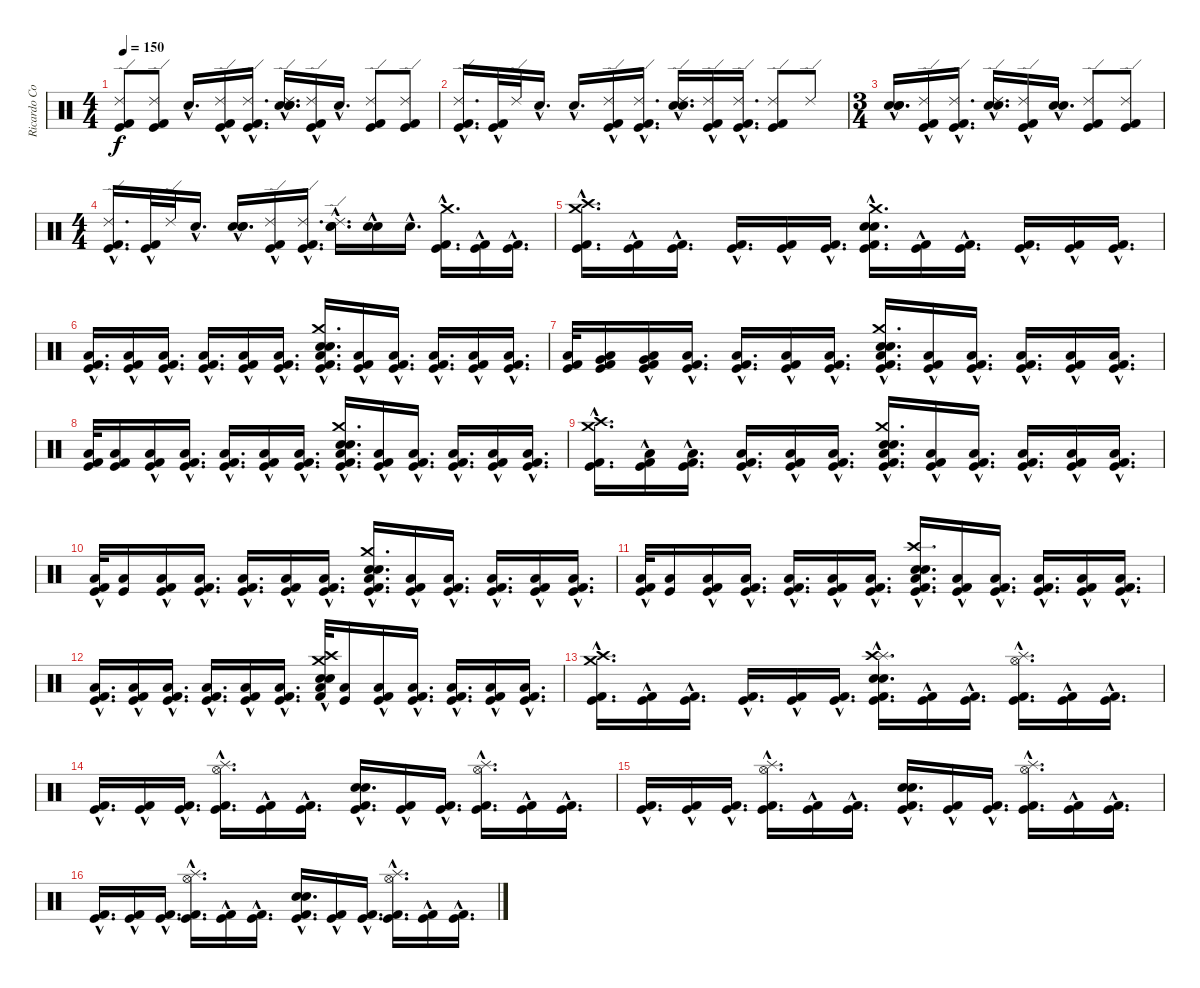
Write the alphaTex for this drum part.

\track ("Ricardo Confessori" "Ricardo Co") {instrument percussion}
\staff {score}
\articulation defaults
\ts (4 4)
\tempo 150
\clef neutral
\ks c
("Ride (edge) 2" "Kick (hit) 2" "Kick (hit)").8{dy f} ("Ride (edge) 2" "Kick (hit) 2" "Kick (hit)").8 "Snare (hit)"{hac}.16{d} ("Ride (edge) 2"{hac} "Kick (hit) 2"{hac} "Kick (hit)"{hac}).16 ("Ride (edge) 2"{hac} "Kick (hit) 2"{hac} "Kick (hit)"{hac}).16{d} ("Electric Snare (hit)"{hac} "Snare (hit) 2"{hac} "Ride (edge) 2"{hac} "Snare (hit)"{hac}).16{d} ("Ride (edge) 2"{hac} "Kick (hit) 2"{hac} "Kick (hit)"{hac}).16 "Snare (hit)"{hac}.16{d} ("Ride (edge) 2" "Kick (hit) 2" "Kick (hit)").8 ("Ride (edge) 2" "Kick (hit) 2" "Kick (hit)").8 |
("Ride (edge) 2" "Kick (hit) 2"{hac} "Kick (hit)"{hac}).16{d} ("Kick (hit) 2"{hac} "Kick (hit)"{hac}).32 "Ride (edge) 2".32 "Snare (hit)"{hac}.16{d} "Snare (hit)"{hac}.16{d} ("Ride (edge) 2"{hac} "Kick (hit) 2"{hac} "Kick (hit)"{hac}).16 ("Ride (edge) 2"{hac} "Kick (hit) 2"{hac} "Kick (hit)"{hac}).16{d} ("Electric Snare (hit)"{hac} "Snare (hit) 2"{hac} "Ride (edge) 2"{hac}).16{d} ("Ride (edge) 2"{hac} "Kick (hit) 2"{hac} "Kick (hit)"{hac}).16 ("Ride (edge) 2"{hac} "Kick (hit) 2"{hac} "Kick (hit)"{hac}).16{d} ("Kick (hit) 2" "Ride (edge) 2" "Kick (hit)").8 "Ride (edge) 2".8 |
\ts (3 4)
("Electric Snare (hit)"{hac} "Snare (hit) 2"{hac} "Snare (hit)"{hac}).16{d} ("Kick (hit) 2"{hac} "Ride (edge) 2"{hac} "Kick (hit)"{hac}).16 ("Kick (hit) 2"{hac} "Ride (edge) 2"{hac} "Kick (hit)"{hac}).16{d} ("Electric Snare (hit)"{hac} "Snare (hit) 2"{hac} "Ride (edge) 2"{hac}).16{d} ("Ride (edge) 2"{hac} "Kick (hit) 2"{hac} "Kick (hit)"{hac}).16 ("Snare (hit)"{hac} "Snare (hit)"{hac}).16{d} ("Ride (edge) 2" "Kick (hit) 2" "Kick (hit)").8 ("Ride (edge) 2" "Kick (hit) 2" "Kick (hit)").8 |
\ts (4 4)
("Ride (edge) 2" "Kick (hit) 2"{hac} "Kick (hit)"{hac}).16{d} ("Kick (hit) 2"{hac} "Kick (hit)"{hac}).32 "Ride (edge) 2".32 "Snare (hit)"{hac}.16{d} ("Electric Snare (hit)"{hac} "Snare (hit) 2"{hac} "Snare (hit)"{hac}).16{d} ("Ride (edge) 2"{hac} "Kick (hit) 2"{hac} "Kick (hit)"{hac}).16 ("Ride (edge) 2"{hac} "Kick (hit) 2"{hac} "Kick (hit)"{hac}).16{d} ("Electric Snare (hit)"{hac} "Ride (edge) 2"{hac} "Snare (hit) 2"{hac}).16{d} ("Electric Snare (hit)"{hac} "Snare (hit) 2"{hac}).16 "Snare (hit)"{hac}.16{d} ("Crash medium (hit)"{hac} "Kick (hit) 2"{hac} "Kick (hit)"{hac}).16{d} ("Kick (hit) 2"{hac} "Kick (hit)"{hac}).16 ("Kick (hit) 2"{hac} "Kick (hit)"{hac}).16{d} |
("Crash high (hit)"{hac} "Crash medium (hit)"{hac} "Kick (hit) 2"{hac} "Kick (hit)"{hac}).16{d} ("Kick (hit) 2"{hac} "Kick (hit)"{hac}).16 ("Kick (hit) 2"{hac} "Kick (hit)"{hac}).16{d} ("Kick (hit) 2"{hac} "Kick (hit)"{hac}).16{d} ("Kick (hit) 2"{hac} "Kick (hit)"{hac}).16 ("Kick (hit) 2"{hac} "Kick (hit)"{hac}).16{d} ("Electric Snare (hit)"{hac} "Snare (hit) 2"{hac} "Crash medium (hit)"{hac} "Kick (hit) 2"{hac} "Kick (hit)"{hac}).16{d} ("Kick (hit) 2"{hac} "Kick (hit)"{hac}).16 ("Kick (hit) 2"{hac} "Kick (hit)"{hac}).16{d} ("Kick (hit) 2"{hac} "Kick (hit)"{hac}).16{d} ("Kick (hit) 2"{hac} "Kick (hit)"{hac}).16 ("Kick (hit) 2"{hac} "Kick (hit)"{hac}).16{d} |
("Low Floor Tom (hit)"{hac} "Kick (hit) 2"{hac} "Kick (hit)"{hac}).16{d} ("Low Floor Tom (hit)"{hac} "Kick (hit) 2"{hac} "Kick (hit)"{hac}).16 ("Low Floor Tom (hit)"{hac} "Kick (hit) 2"{hac} "Kick (hit)"{hac}).16{d} ("Low Floor Tom (hit)"{hac} "Kick (hit) 2"{hac} "Kick (hit)"{hac}).16{d} ("Low Floor Tom (hit)"{hac} "Kick (hit) 2"{hac} "Kick (hit)"{hac}).16 ("Low Floor Tom (hit)"{hac} "Kick (hit) 2"{hac} "Kick (hit)"{hac}).16{d} ("Low Floor Tom (hit)"{hac} "Crash medium (hit)"{hac} "Electric Snare (hit)"{hac} "Snare (hit) 2"{hac} "Kick (hit) 2"{hac} "Kick (hit)"{hac}).16{d} ("Low Floor Tom (hit)"{hac} "Kick (hit) 2"{hac} "Kick (hit)"{hac}).16 ("Low Floor Tom (hit)"{hac} "Kick (hit) 2"{hac} "Kick (hit)"{hac}).16{d} ("Low Floor Tom (hit)"{hac} "Kick (hit) 2"{hac} "Kick (hit)"{hac}).16{d} ("Low Floor Tom (hit)"{hac} "Kick (hit) 2"{hac} "Kick (hit)"{hac}).16 ("Low Floor Tom (hit)"{hac} "Kick (hit) 2"{hac} "Kick (hit)"{hac}).16{d} |
("Low Floor Tom (hit)" "Kick (hit) 2" "Kick (hit)").32 ("Very Low Tom (hit)" "Kick (hit) 2" "Kick (hit)" "Low Floor Tom (hit)").16 ("Very Low Tom (hit)"{hac} "Low Floor Tom (hit)"{hac} "Kick (hit) 2"{hac} "Kick (hit)"{hac}).16 ("Low Floor Tom (hit)"{hac} "Kick (hit) 2"{hac} "Kick (hit)"{hac}).16{d} ("Low Floor Tom (hit)"{hac} "Kick (hit) 2"{hac} "Kick (hit)"{hac}).16{d} ("Low Floor Tom (hit)"{hac} "Kick (hit) 2"{hac} "Kick (hit)"{hac}).16 ("Low Floor Tom (hit)"{hac} "Kick (hit) 2"{hac} "Kick (hit)"{hac}).16{d} ("Crash medium (hit)"{hac} "Electric Snare (hit)"{hac} "Snare (hit) 2"{hac} "Low Floor Tom (hit)"{hac} "Kick (hit) 2"{hac} "Kick (hit)"{hac}).16{d} ("Low Floor Tom (hit)"{hac} "Kick (hit) 2"{hac} "Kick (hit)"{hac}).16 ("Low Floor Tom (hit)"{hac} "Kick (hit) 2"{hac} "Kick (hit)"{hac}).16{d} ("Low Floor Tom (hit)"{hac} "Kick (hit) 2"{hac} "Kick (hit)"{hac}).16{d} ("Low Floor Tom (hit)"{hac} "Kick (hit) 2"{hac} "Kick (hit)"{hac}).16 ("Low Floor Tom (hit)"{hac} "Kick (hit) 2"{hac} "Kick (hit)"{hac}).16{d} |
("Low Floor Tom (hit)" "Kick (hit) 2" "Kick (hit)").32 ("Kick (hit) 2" "Kick (hit)" "Low Floor Tom (hit)").16 ("Low Floor Tom (hit)"{hac} "Kick (hit) 2"{hac} "Kick (hit)"{hac}).16 ("Low Floor Tom (hit)"{hac} "Kick (hit) 2"{hac} "Kick (hit)"{hac}).16{d} ("Low Floor Tom (hit)"{hac} "Kick (hit) 2"{hac} "Kick (hit)"{hac}).16{d} ("Low Floor Tom (hit)"{hac} "Kick (hit) 2"{hac} "Kick (hit)"{hac}).16 ("Low Floor Tom (hit)"{hac} "Kick (hit) 2"{hac} "Kick (hit)"{hac}).16{d} ("Crash medium (hit)"{hac} "Electric Snare (hit)"{hac} "Snare (hit) 2"{hac} "Low Floor Tom (hit)"{hac} "Kick (hit) 2"{hac} "Kick (hit)"{hac}).16{d} ("Low Floor Tom (hit)"{hac} "Kick (hit) 2"{hac} "Kick (hit)"{hac}).16 ("Low Floor Tom (hit)"{hac} "Kick (hit) 2"{hac} "Kick (hit)"{hac}).16{d} ("Low Floor Tom (hit)"{hac} "Kick (hit) 2"{hac} "Kick (hit)"{hac}).16{d} ("Low Floor Tom (hit)"{hac} "Kick (hit) 2"{hac} "Kick (hit)"{hac}).16 ("Low Floor Tom (hit)"{hac} "Kick (hit) 2"{hac} "Kick (hit)"{hac}).16{d} |
("Crash high (hit)"{hac} "Crash medium (hit)"{hac} "Kick (hit) 2"{hac} "Kick (hit)"{hac}).16{d} ("Low Floor Tom (hit)"{hac} "Kick (hit) 2"{hac} "Kick (hit)"{hac}).16 ("Low Floor Tom (hit)"{hac} "Kick (hit) 2"{hac} "Kick (hit)"{hac}).16{d} ("Low Floor Tom (hit)"{hac} "Kick (hit) 2"{hac} "Kick (hit)"{hac}).16{d} ("Low Floor Tom (hit)"{hac} "Kick (hit) 2"{hac} "Kick (hit)"{hac}).16 ("Low Floor Tom (hit)"{hac} "Kick (hit) 2"{hac} "Kick (hit)"{hac}).16{d} ("Crash medium (hit)"{hac} "Electric Snare (hit)"{hac} "Snare (hit) 2"{hac} "Low Floor Tom (hit)"{hac} "Kick (hit) 2"{hac} "Kick (hit)"{hac}).16{d} ("Low Floor Tom (hit)"{hac} "Kick (hit) 2"{hac} "Kick (hit)"{hac}).16 ("Low Floor Tom (hit)"{hac} "Kick (hit) 2"{hac} "Kick (hit)"{hac}).16{d} ("Low Floor Tom (hit)"{hac} "Kick (hit) 2"{hac} "Kick (hit)"{hac}).16{d} ("Low Floor Tom (hit)"{hac} "Kick (hit) 2"{hac} "Kick (hit)"{hac}).16 ("Low Floor Tom (hit)"{hac} "Kick (hit) 2"{hac} "Kick (hit)"{hac}).16{d} |
("Low Floor Tom (hit)" "Kick (hit) 2"{hac} "Kick (hit)").32 ("Kick (hit)" "Low Floor Tom (hit)").16 ("Low Floor Tom (hit)"{hac} "Kick (hit) 2"{hac} "Kick (hit)"{hac}).16 ("Low Floor Tom (hit)"{hac} "Kick (hit) 2"{hac} "Kick (hit)"{hac}).16{d} ("Low Floor Tom (hit)"{hac} "Kick (hit) 2"{hac} "Kick (hit)"{hac}).16{d} ("Low Floor Tom (hit)"{hac} "Kick (hit) 2"{hac} "Kick (hit)"{hac}).16 ("Low Floor Tom (hit)"{hac} "Kick (hit) 2"{hac} "Kick (hit)"{hac}).16{d} ("Crash medium (hit)"{hac} "Electric Snare (hit)"{hac} "Snare (hit) 2"{hac} "Low Floor Tom (hit)"{hac} "Kick (hit) 2"{hac} "Kick (hit)"{hac}).16{d} ("Low Floor Tom (hit)"{hac} "Kick (hit) 2"{hac} "Kick (hit)"{hac}).16 ("Low Floor Tom (hit)"{hac} "Kick (hit) 2"{hac} "Kick (hit)"{hac}).16{d} ("Low Floor Tom (hit)"{hac} "Kick (hit) 2"{hac} "Kick (hit)"{hac}).16{d} ("Low Floor Tom (hit)"{hac} "Kick (hit) 2"{hac} "Kick (hit)"{hac}).16 ("Low Floor Tom (hit)"{hac} "Kick (hit) 2"{hac} "Kick (hit)"{hac}).16{d} |
("Low Floor Tom (hit)" "Kick (hit) 2"{hac} "Kick (hit)").32 ("Kick (hit)" "Low Floor Tom (hit)").16 ("Low Floor Tom (hit)"{hac} "Kick (hit) 2"{hac} "Kick (hit)"{hac}).16 ("Low Floor Tom (hit)"{hac} "Kick (hit) 2"{hac} "Kick (hit)"{hac}).16{d} ("Low Floor Tom (hit)"{hac} "Kick (hit) 2"{hac} "Kick (hit)"{hac}).16{d} ("Low Floor Tom (hit)"{hac} "Kick (hit) 2"{hac} "Kick (hit)"{hac}).16 ("Low Floor Tom (hit)"{hac} "Kick (hit) 2"{hac} "Kick (hit)"{hac}).16{d} ("Crash high (hit)"{hac} "Electric Snare (hit)"{hac} "Snare (hit) 2"{hac} "Low Floor Tom (hit)"{hac} "Kick (hit) 2"{hac} "Kick (hit)"{hac}).16{d} ("Low Floor Tom (hit)"{hac} "Kick (hit) 2"{hac} "Kick (hit)"{hac}).16 ("Low Floor Tom (hit)"{hac} "Kick (hit) 2"{hac} "Kick (hit)"{hac}).16{d} ("Low Floor Tom (hit)"{hac} "Kick (hit) 2"{hac} "Kick (hit)"{hac}).16{d} ("Low Floor Tom (hit)"{hac} "Kick (hit) 2"{hac} "Kick (hit)"{hac}).16 ("Low Floor Tom (hit)"{hac} "Kick (hit) 2"{hac} "Kick (hit)"{hac}).16{d} |
("Low Floor Tom (hit)"{hac} "Kick (hit) 2"{hac} "Kick (hit)"{hac}).16{d} ("Low Floor Tom (hit)"{hac} "Kick (hit) 2"{hac} "Kick (hit)"{hac}).16 ("Low Floor Tom (hit)"{hac} "Kick (hit) 2"{hac} "Kick (hit)"{hac}).16{d} ("Low Floor Tom (hit)"{hac} "Kick (hit) 2"{hac} "Kick (hit)"{hac}).16{d} ("Low Floor Tom (hit)"{hac} "Kick (hit) 2"{hac} "Kick (hit)"{hac}).16 ("Low Floor Tom (hit)"{hac} "Kick (hit) 2"{hac} "Kick (hit)"{hac}).16{d} ("Crash medium (hit)"{hac} "Crash high (hit)"{hac} "Electric Snare (hit)"{hac} "Snare (hit) 2"{hac} "Low Floor Tom (hit)" "Kick (hit) 2"{hac}).32 ("Kick (hit)" "Low Floor Tom (hit)").16 ("Low Floor Tom (hit)"{hac} "Kick (hit) 2"{hac} "Kick (hit)"{hac}).16 ("Low Floor Tom (hit)"{hac} "Kick (hit) 2"{hac} "Kick (hit)"{hac}).16{d} ("Low Floor Tom (hit)"{hac} "Kick (hit) 2"{hac} "Kick (hit)"{hac}).16{d} ("Low Floor Tom (hit)"{hac} "Kick (hit) 2"{hac} "Kick (hit)"{hac}).16 ("Low Floor Tom (hit)"{hac} "Kick (hit) 2"{hac} "Kick (hit)"{hac}).16{d} |
("Crash high (hit)"{hac} "Crash medium (hit)"{hac} "Kick (hit) 2"{hac} "Kick (hit)"{hac}).16{d} ("Kick (hit) 2"{hac} "Kick (hit)"{hac}).16 ("Kick (hit) 2"{hac} "Kick (hit)"{hac}).16{d} ("Kick (hit) 2"{hac} "Kick (hit)"{hac}).16{d} ("Kick (hit) 2"{hac} "Kick (hit)"{hac}).16 ("Kick (hit) 2"{hac} "Kick (hit)"{hac}).16{d} ("Splash (hit)"{hac} "Crash high (hit)"{hac} "Electric Snare (hit)"{hac} "Snare (hit) 2"{hac} "Kick (hit) 2"{hac} "Kick (hit)"{hac}).16{d} ("Kick (hit) 2"{hac} "Kick (hit)"{hac}).16 ("Kick (hit) 2"{hac} "Kick (hit)"{hac}).16{d} ("Hi-Hat (open)"{hac} "Splash (hit)"{hac} "Kick (hit) 2"{hac} "Kick (hit)"{hac}).16{d} ("Kick (hit) 2"{hac} "Kick (hit)"{hac}).16 ("Kick (hit) 2"{hac} "Kick (hit)"{hac}).16{d} |
("Kick (hit) 2"{hac} "Kick (hit)"{hac}).16{d} ("Kick (hit) 2"{hac} "Kick (hit)"{hac}).16 ("Kick (hit) 2"{hac} "Kick (hit)"{hac}).16{d} ("Hi-Hat (open)"{hac} "Splash (hit)"{hac} "Kick (hit) 2"{hac} "Kick (hit)"{hac}).16{d} ("Kick (hit) 2"{hac} "Kick (hit)"{hac}).16 ("Kick (hit) 2"{hac} "Kick (hit)"{hac}).16{d} ("Electric Snare (hit)"{hac} "Snare (hit) 2"{hac} "Kick (hit) 2"{hac} "Kick (hit)"{hac}).16{d} ("Kick (hit) 2"{hac} "Kick (hit)"{hac}).16 ("Kick (hit) 2"{hac} "Kick (hit)"{hac}).16{d} ("Hi-Hat (open)"{hac} "Splash (hit)"{hac} "Kick (hit) 2"{hac} "Kick (hit)"{hac}).16{d} ("Kick (hit) 2"{hac} "Kick (hit)"{hac}).16 ("Kick (hit) 2"{hac} "Kick (hit)"{hac}).16{d} |
("Kick (hit) 2"{hac} "Kick (hit)"{hac}).16{d} ("Kick (hit) 2"{hac} "Kick (hit)"{hac}).16 ("Kick (hit) 2"{hac} "Kick (hit)"{hac}).16{d} ("Hi-Hat (open)"{hac} "Splash (hit)"{hac} "Kick (hit) 2"{hac} "Kick (hit)"{hac}).16{d} ("Kick (hit) 2"{hac} "Kick (hit)"{hac}).16 ("Kick (hit) 2"{hac} "Kick (hit)"{hac}).16{d} ("Electric Snare (hit)"{hac} "Snare (hit) 2"{hac} "Kick (hit) 2"{hac} "Kick (hit)"{hac}).16{d} ("Kick (hit) 2"{hac} "Kick (hit)"{hac}).16 ("Kick (hit) 2"{hac} "Kick (hit)"{hac}).16{d} ("Hi-Hat (open)"{hac} "Splash (hit)"{hac} "Kick (hit) 2"{hac} "Kick (hit)"{hac}).16{d} ("Kick (hit) 2"{hac} "Kick (hit)"{hac}).16 ("Kick (hit) 2"{hac} "Kick (hit)"{hac}).16{d} |
("Kick (hit) 2"{hac} "Kick (hit)"{hac}).16{d} ("Kick (hit) 2"{hac} "Kick (hit)"{hac}).16 ("Kick (hit) 2"{hac} "Kick (hit)"{hac}).16{d} ("Hi-Hat (open)"{hac} "Splash (hit)"{hac} "Kick (hit) 2"{hac} "Kick (hit)"{hac}).16{d} ("Kick (hit) 2"{hac} "Kick (hit)"{hac}).16 ("Kick (hit) 2"{hac} "Kick (hit)"{hac}).16{d} ("Electric Snare (hit)"{hac} "Snare (hit) 2"{hac} "Kick (hit) 2"{hac} "Kick (hit)"{hac}).16{d} ("Kick (hit) 2"{hac} "Kick (hit)"{hac}).16 ("Kick (hit) 2"{hac} "Kick (hit)"{hac}).16{d} ("Hi-Hat (open)"{hac} "Splash (hit)"{hac} "Kick (hit) 2"{hac} "Kick (hit)"{hac}).16{d} ("Kick (hit) 2"{hac} "Kick (hit)"{hac}).16 ("Kick (hit) 2"{hac} "Kick (hit)"{hac}).16{d}
